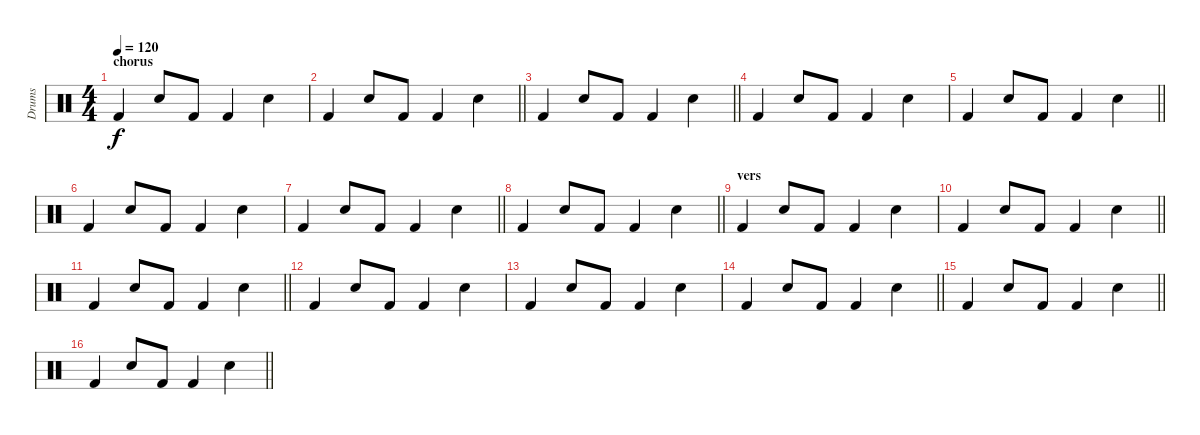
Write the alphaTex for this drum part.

\track ("Drums" "Drums") {instrument percussion}
\staff {score}
\articulation defaults
\ts (4 4)
\section ("" "chorus")
\tempo 120
\clef neutral
\ks c "Kick (hit) 2".4{dy f} "Snare (hit) 2".8 "Kick (hit) 2".8 "Kick (hit) 2".4 "Snare (hit) 2".4
|
\barLineRight lightlight "Kick (hit) 2".4 "Snare (hit) 2".8 "Kick (hit) 2".8 "Kick (hit) 2".4 "Snare (hit) 2".4
|
\barLineRight lightlight "Kick (hit) 2".4 "Snare (hit) 2".8 "Kick (hit) 2".8 "Kick (hit) 2".4 "Snare (hit) 2".4
|
"Kick (hit) 2".4 "Snare (hit) 2".8 "Kick (hit) 2".8 "Kick (hit) 2".4 "Snare (hit) 2".4 |
\barLineRight lightlight "Kick (hit) 2".4 "Snare (hit) 2".8 "Kick (hit) 2".8 "Kick (hit) 2".4 "Snare (hit) 2".4
|
"Kick (hit) 2".4 "Snare (hit) 2".8 "Kick (hit) 2".8 "Kick (hit) 2".4 "Snare (hit) 2".4 |
\barLineRight lightlight "Kick (hit) 2".4 "Snare (hit) 2".8 "Kick (hit) 2".8 "Kick (hit) 2".4 "Snare (hit) 2".4
|
\barLineRight lightlight "Kick (hit) 2".4 "Snare (hit) 2".8 "Kick (hit) 2".8 "Kick (hit) 2".4 "Snare (hit) 2".4
|
\section ("" "vers")
"Kick (hit) 2".4 "Snare (hit) 2".8 "Kick (hit) 2".8 "Kick (hit) 2".4 "Snare (hit) 2".4 |
\barLineRight lightlight "Kick (hit) 2".4 "Snare (hit) 2".8 "Kick (hit) 2".8 "Kick (hit) 2".4 "Snare (hit) 2".4
|
\barLineRight lightlight "Kick (hit) 2".4 "Snare (hit) 2".8 "Kick (hit) 2".8 "Kick (hit) 2".4 "Snare (hit) 2".4
|
"Kick (hit) 2".4 "Snare (hit) 2".8 "Kick (hit) 2".8 "Kick (hit) 2".4 "Snare (hit) 2".4 |
"Kick (hit) 2".4 "Snare (hit) 2".8 "Kick (hit) 2".8 "Kick (hit) 2".4 "Snare (hit) 2".4 |
\barLineRight lightlight "Kick (hit) 2".4 "Snare (hit) 2".8 "Kick (hit) 2".8 "Kick (hit) 2".4 "Snare (hit) 2".4
|
\barLineRight lightlight "Kick (hit) 2".4 "Snare (hit) 2".8 "Kick (hit) 2".8 "Kick (hit) 2".4 "Snare (hit) 2".4
|
\barLineRight lightlight "Kick (hit) 2".4 "Snare (hit) 2".8 "Kick (hit) 2".8 "Kick (hit) 2".4 "Snare (hit) 2".4
